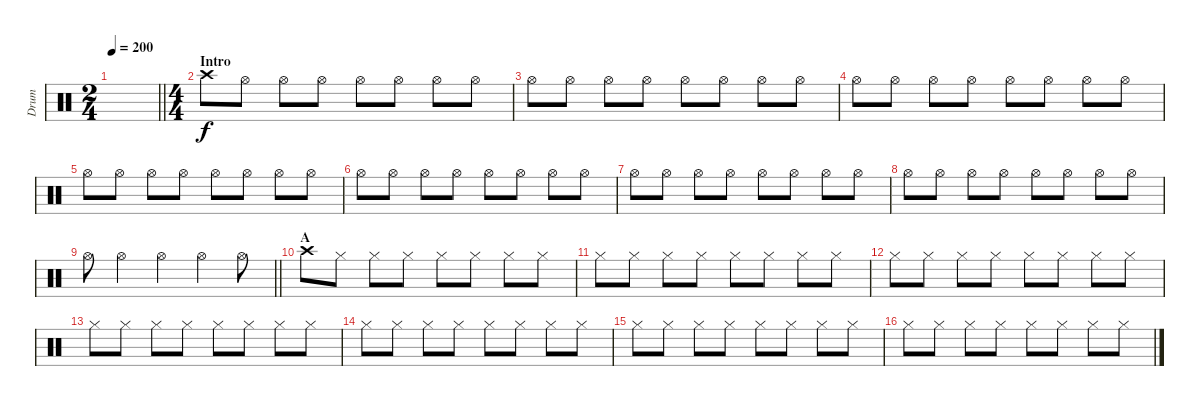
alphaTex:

\track ("Drum" "Drum") {instrument percussion}
\staff {score}
\articulation defaults
\ts (2 4)
\tempo 200
\clef neutral
\barLineRight lightlight
\ks c
|
\ts (4 4)
\section ("" "Intro")
"Crash high (hit)".8 "Hi-Hat (open)".8 "Hi-Hat (open)".8 "Hi-Hat (open)".8 "Hi-Hat (open)".8 "Hi-Hat (open)".8 "Hi-Hat (open)".8 "Hi-Hat (open)".8 |
"Hi-Hat (open)".8 "Hi-Hat (open)".8 "Hi-Hat (open)".8 "Hi-Hat (open)".8 "Hi-Hat (open)".8 "Hi-Hat (open)".8 "Hi-Hat (open)".8 "Hi-Hat (open)".8 |
"Hi-Hat (open)".8 "Hi-Hat (open)".8 "Hi-Hat (open)".8 "Hi-Hat (open)".8 "Hi-Hat (open)".8 "Hi-Hat (open)".8 "Hi-Hat (open)".8 "Hi-Hat (open)".8 |
"Hi-Hat (open)".8 "Hi-Hat (open)".8 "Hi-Hat (open)".8 "Hi-Hat (open)".8 "Hi-Hat (open)".8 "Hi-Hat (open)".8 "Hi-Hat (open)".8 "Hi-Hat (open)".8 |
"Hi-Hat (open)".8 "Hi-Hat (open)".8 "Hi-Hat (open)".8 "Hi-Hat (open)".8 "Hi-Hat (open)".8 "Hi-Hat (open)".8 "Hi-Hat (open)".8 "Hi-Hat (open)".8 |
"Hi-Hat (open)".8 "Hi-Hat (open)".8 "Hi-Hat (open)".8 "Hi-Hat (open)".8 "Hi-Hat (open)".8 "Hi-Hat (open)".8 "Hi-Hat (open)".8 "Hi-Hat (open)".8 |
"Hi-Hat (open)".8 "Hi-Hat (open)".8 "Hi-Hat (open)".8 "Hi-Hat (open)".8 "Hi-Hat (open)".8 "Hi-Hat (open)".8 "Hi-Hat (open)".8 "Hi-Hat (open)".8 |
\barLineRight lightlight "Hi-Hat (open)".8 "Hi-Hat (open)".4 "Hi-Hat (open)".4 "Hi-Hat (open)".4 "Hi-Hat (open)".8
|
\section ("" "A")
"Crash high (hit)".8 "Hi-Hat (closed)".8 "Hi-Hat (closed)".8 "Hi-Hat (closed)".8 "Hi-Hat (closed)".8 "Hi-Hat (closed)".8 "Hi-Hat (closed)".8 "Hi-Hat (closed)".8 |
"Hi-Hat (closed)".8 "Hi-Hat (closed)".8 "Hi-Hat (closed)".8 "Hi-Hat (closed)".8 "Hi-Hat (closed)".8 "Hi-Hat (closed)".8 "Hi-Hat (closed)".8 "Hi-Hat (closed)".8 |
"Hi-Hat (closed)".8 "Hi-Hat (closed)".8 "Hi-Hat (closed)".8 "Hi-Hat (closed)".8 "Hi-Hat (closed)".8 "Hi-Hat (closed)".8 "Hi-Hat (closed)".8 "Hi-Hat (closed)".8 |
"Hi-Hat (closed)".8 "Hi-Hat (closed)".8 "Hi-Hat (closed)".8 "Hi-Hat (closed)".8 "Hi-Hat (closed)".8 "Hi-Hat (closed)".8 "Hi-Hat (closed)".8 "Hi-Hat (closed)".8 |
"Hi-Hat (closed)".8 "Hi-Hat (closed)".8 "Hi-Hat (closed)".8 "Hi-Hat (closed)".8 "Hi-Hat (closed)".8 "Hi-Hat (closed)".8 "Hi-Hat (closed)".8 "Hi-Hat (closed)".8 |
"Hi-Hat (closed)".8 "Hi-Hat (closed)".8 "Hi-Hat (closed)".8 "Hi-Hat (closed)".8 "Hi-Hat (closed)".8 "Hi-Hat (closed)".8 "Hi-Hat (closed)".8 "Hi-Hat (closed)".8 |
"Hi-Hat (closed)".8 "Hi-Hat (closed)".8 "Hi-Hat (closed)".8 "Hi-Hat (closed)".8 "Hi-Hat (closed)".8 "Hi-Hat (closed)".8 "Hi-Hat (closed)".8 "Hi-Hat (closed)".8
